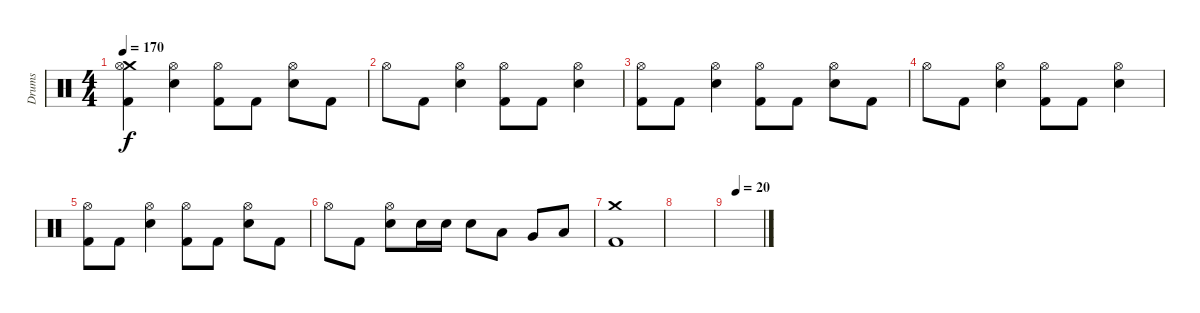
\track ("Drums" "Drums") {instrument percussion}
\staff {score}
\articulation defaults
\ts (4 4)
\tempo 170
\clef neutral
\ks c
("Crash medium (hit)" "Hi-Hat (open)" "Kick (hit) 2").4{dy f} ("Hi-Hat (open)" "Electric Snare (hit)").4 ("Hi-Hat (open)" "Kick (hit) 2").8 "Kick (hit) 2".8 ("Hi-Hat (open)" "Electric Snare (hit)").8 "Kick (hit) 2".8 |
"Hi-Hat (open)".8 "Kick (hit) 2".8 ("Hi-Hat (open)" "Electric Snare (hit)").4 ("Hi-Hat (open)" "Kick (hit) 2").8 "Kick (hit) 2".8 ("Hi-Hat (open)" "Electric Snare (hit)").4 |
("Hi-Hat (open)" "Kick (hit) 2").8 "Kick (hit) 2".8 ("Hi-Hat (open)" "Electric Snare (hit)").4 ("Hi-Hat (open)" "Kick (hit) 2").8 "Kick (hit) 2".8 ("Hi-Hat (open)" "Electric Snare (hit)").8 "Kick (hit) 2".8 |
"Hi-Hat (open)".8 "Kick (hit) 2".8 ("Hi-Hat (open)" "Electric Snare (hit)").4 ("Hi-Hat (open)" "Kick (hit) 2").8 "Kick (hit) 2".8 ("Hi-Hat (open)" "Electric Snare (hit)").4 |
("Hi-Hat (open)" "Kick (hit) 2").8 "Kick (hit) 2".8 ("Hi-Hat (open)" "Electric Snare (hit)").4 ("Hi-Hat (open)" "Kick (hit) 2").8 "Kick (hit) 2".8 ("Hi-Hat (open)" "Electric Snare (hit)").8 "Kick (hit) 2".8 |
"Hi-Hat (open)".8 "Kick (hit) 2".8 ("Hi-Hat (open)" "Electric Snare (hit)").8 "Electric Snare (hit)".16 "Electric Snare (hit)".16 "Electric Snare (hit)".8 "Low Tom (hit)".8 "Very Low Tom (hit)".8 "Low Floor Tom (hit)".8 |
("Crash medium (hit)" "Kick (hit) 2").1 |
|
\tempo (20 0.25)
